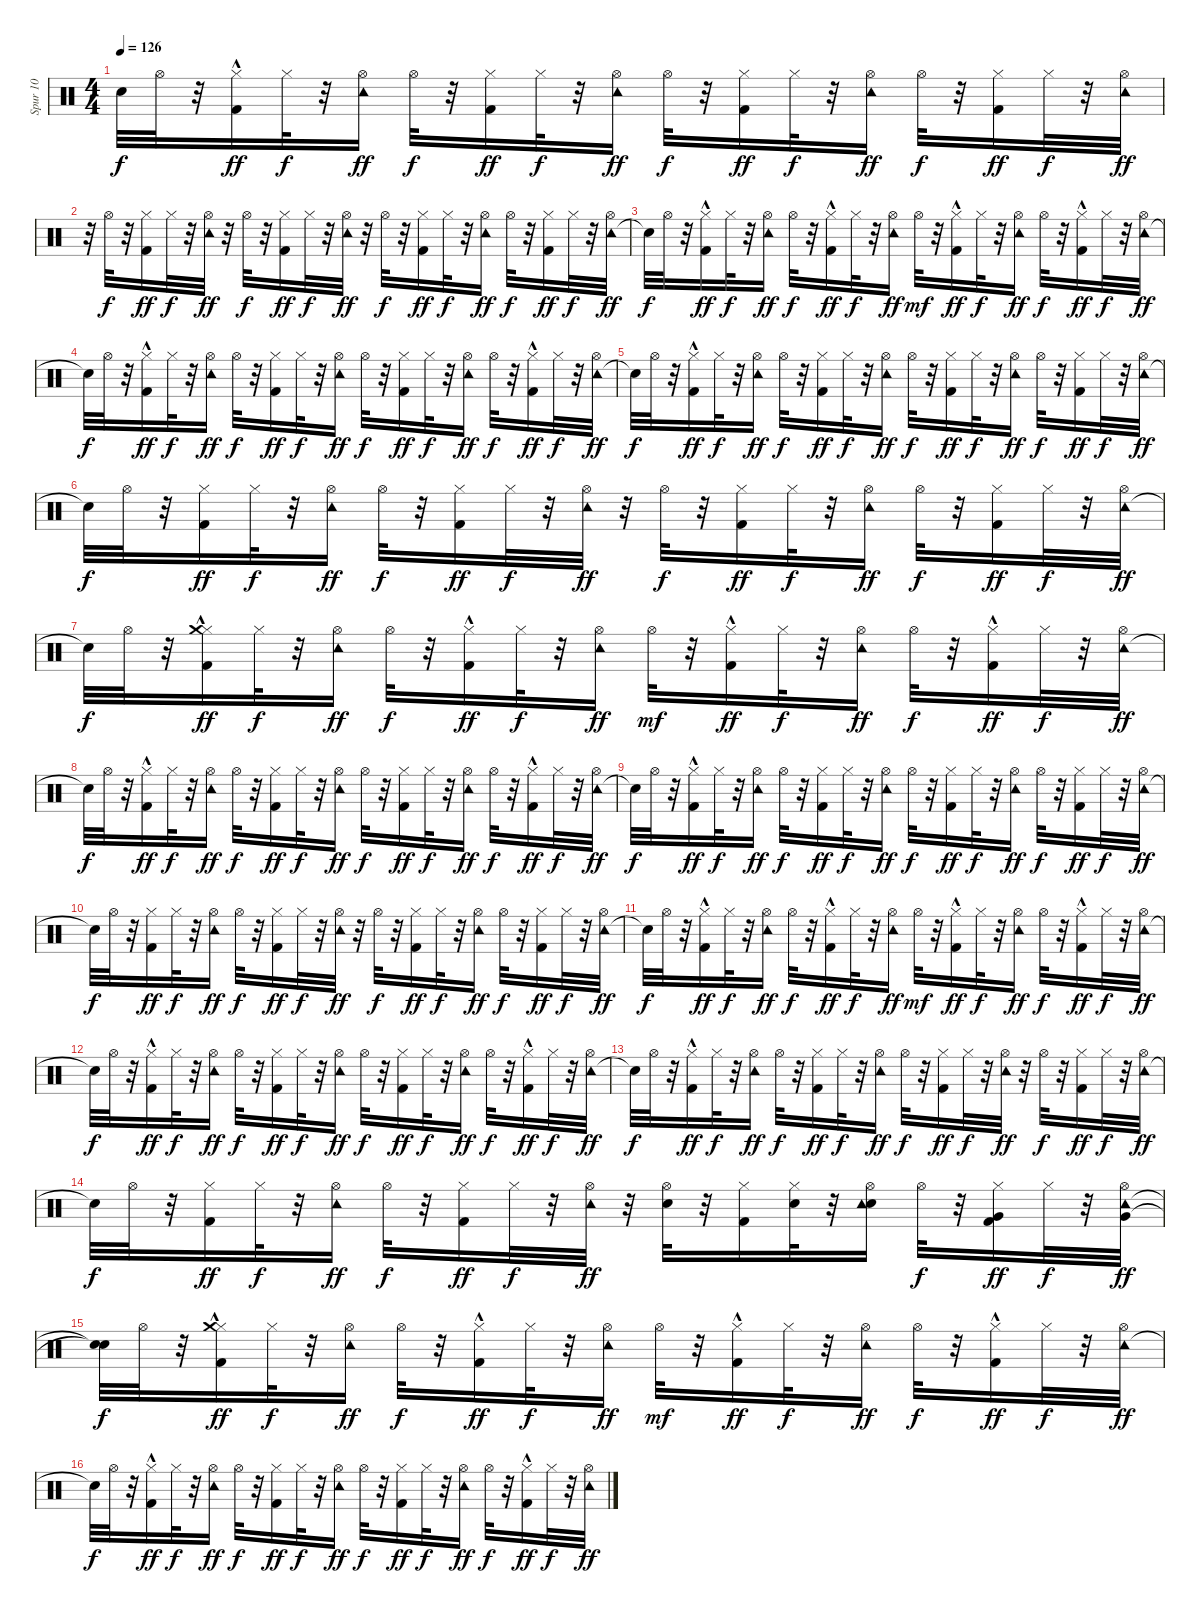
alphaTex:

\track ("Spur 10" "Spur 10") {instrument percussion}
\staff {score}
\articulation defaults
\ts (4 4)
\tempo 126
\clef neutral
\ks c "Snare (hit)"{t}.32{dy f} "Hi-Hat (open)".32
r.32 ("Kick (hit) 2"{hac} "Hi-Hat (closed)").16{dy ff} "Hi-Hat (closed)".32{dy f} r.32 ("Tambourine (hit)" "Hi-Hat (open)").16{dy ff} "Hi-Hat (open)".32{dy f} r.32 ("Kick (hit) 2" "Hi-Hat (closed)").16{dy ff} "Hi-Hat (closed)".32{dy f} r.32 ("Tambourine (hit)" "Hi-Hat (open)").16{dy ff} "Hi-Hat (open)".32{dy f} r.32 ("Kick (hit) 2" "Hi-Hat (closed)").16{dy ff} "Hi-Hat (closed)".32{dy f} r.32 ("Tambourine (hit)" "Hi-Hat (open)").16{dy ff} "Hi-Hat (open)".32{dy f} r.32 ("Kick (hit) 2" "Hi-Hat (closed)").16{dy ff} "Hi-Hat (closed)".32{dy f} r.32 ("Tambourine (hit)" "Hi-Hat (open)").32{dy ff} |
r.32 "Hi-Hat (open)".32{dy f} r.32 ("Kick (hit) 2" "Hi-Hat (closed)").16{dy ff} "Hi-Hat (closed)".32{dy f} r.32 ("Tambourine (hit)" "Hi-Hat (open)").32{dy ff} r.32 "Hi-Hat (open)".32{dy f} r.32 ("Kick (hit) 2" "Hi-Hat (closed)").16{dy ff} "Hi-Hat (closed)".32{dy f} r.32 ("Tambourine (hit)" "Hi-Hat (open)").32{dy ff} r.32 "Hi-Hat (open)".32{dy f} r.32 ("Kick (hit) 2" "Hi-Hat (closed)").16{dy ff} "Hi-Hat (closed)".32{dy f} r.32 ("Tambourine (hit)" "Hi-Hat (open)").16{dy ff} "Hi-Hat (open)".32{dy f} r.32 ("Kick (hit) 2" "Hi-Hat (closed)").16{dy ff} "Hi-Hat (closed)".32{dy f} r.32 ("Tambourine (hit)" "Hi-Hat (open)").32{dy ff} |
"Snare (hit)"{t}.32{dy f} "Hi-Hat (open)".32 r.32 ("Kick (hit) 2"{hac} "Hi-Hat (closed)").16{dy ff} "Hi-Hat (closed)".32{dy f} r.32 ("Tambourine (hit)" "Hi-Hat (open)").16{dy ff} "Hi-Hat (open)".32{dy f} r.32 ("Kick (hit) 2"{hac} "Hi-Hat (closed)").16{dy ff} "Hi-Hat (closed)".32{dy f} r.32 ("Tambourine (hit)" "Hi-Hat (open)").16{dy ff} "Hi-Hat (open)".32{dy mf} r.32 ("Kick (hit) 2"{hac} "Hi-Hat (closed)").16{dy ff} "Hi-Hat (closed)".32{dy f} r.32 ("Tambourine (hit)" "Hi-Hat (open)").16{dy ff} "Hi-Hat (open)".32{dy f} r.32 ("Kick (hit) 2"{hac} "Hi-Hat (closed)").16{dy ff} "Hi-Hat (closed)".32{dy f} r.32 ("Tambourine (hit)" "Hi-Hat (open)").32{dy ff} |
"Snare (hit)"{t}.32{dy f} "Hi-Hat (open)".32 r.32 ("Kick (hit) 2"{hac} "Hi-Hat (closed)").16{dy ff} "Hi-Hat (closed)".32{dy f} r.32 ("Tambourine (hit)" "Hi-Hat (open)").16{dy ff} "Hi-Hat (open)".32{dy f} r.32 ("Kick (hit) 2" "Hi-Hat (closed)").16{dy ff} "Hi-Hat (closed)".32{dy f} r.32 ("Tambourine (hit)" "Hi-Hat (open)").16{dy ff} "Hi-Hat (open)".32{dy f} r.32 ("Kick (hit) 2" "Hi-Hat (closed)").16{dy ff} "Hi-Hat (closed)".32{dy f} r.32 ("Tambourine (hit)" "Hi-Hat (open)").16{dy ff} "Hi-Hat (open)".32{dy f} r.32 ("Kick (hit) 2"{hac} "Hi-Hat (closed)").16{dy ff} "Hi-Hat (closed)".32{dy f} r.32 ("Tambourine (hit)" "Hi-Hat (open)").32{dy ff} |
"Snare (hit)"{t}.32{dy f} "Hi-Hat (open)".32 r.32 ("Kick (hit) 2"{hac} "Hi-Hat (closed)").16{dy ff} "Hi-Hat (closed)".32{dy f} r.32 ("Tambourine (hit)" "Hi-Hat (open)").16{dy ff} "Hi-Hat (open)".32{dy f} r.32 ("Kick (hit) 2" "Hi-Hat (closed)").16{dy ff} "Hi-Hat (closed)".32{dy f} r.32 ("Tambourine (hit)" "Hi-Hat (open)").16{dy ff} "Hi-Hat (open)".32{dy f} r.32 ("Kick (hit) 2" "Hi-Hat (closed)").16{dy ff} "Hi-Hat (closed)".32{dy f} r.32 ("Tambourine (hit)" "Hi-Hat (open)").16{dy ff} "Hi-Hat (open)".32{dy f} r.32 ("Kick (hit) 2" "Hi-Hat (closed)").16{dy ff} "Hi-Hat (closed)".32{dy f} r.32 ("Tambourine (hit)" "Hi-Hat (open)").32{dy ff} |
"Snare (hit)"{t}.32{dy f} "Hi-Hat (open)".32 r.32 ("Kick (hit) 2" "Hi-Hat (closed)").16{dy ff} "Hi-Hat (closed)".32{dy f} r.32 ("Tambourine (hit)" "Hi-Hat (open)").16{dy ff} "Hi-Hat (open)".32{dy f} r.32 ("Kick (hit) 2" "Hi-Hat (closed)").16{dy ff} "Hi-Hat (closed)".32{dy f} r.32 ("Tambourine (hit)" "Hi-Hat (open)").32{dy ff} r.32 "Hi-Hat (open)".32{dy f} r.32 ("Kick (hit) 2" "Hi-Hat (closed)").16{dy ff} "Hi-Hat (closed)".32{dy f} r.32 ("Tambourine (hit)" "Hi-Hat (open)").16{dy ff} "Hi-Hat (open)".32{dy f} r.32 ("Kick (hit) 2" "Hi-Hat (closed)").16{dy ff} "Hi-Hat (closed)".32{dy f} r.32 ("Tambourine (hit)" "Hi-Hat (open)").32{dy ff} |
"Snare (hit)"{t}.32{dy f} "Hi-Hat (open)".32 r.32 ("Kick (hit) 2"{hac} "Hi-Hat (closed)" "Crash medium (hit)").16{dy ff} "Hi-Hat (closed)".32{dy f} r.32 ("Tambourine (hit)" "Hi-Hat (open)").16{dy ff} "Hi-Hat (open)".32{dy f} r.32 ("Kick (hit) 2"{hac} "Hi-Hat (closed)").16{dy ff} "Hi-Hat (closed)".32{dy f} r.32 ("Tambourine (hit)" "Hi-Hat (open)").16{dy ff} "Hi-Hat (open)".32{dy mf} r.32 ("Kick (hit) 2"{hac} "Hi-Hat (closed)").16{dy ff} "Hi-Hat (closed)".32{dy f} r.32 ("Tambourine (hit)" "Hi-Hat (open)").16{dy ff} "Hi-Hat (open)".32{dy f} r.32 ("Kick (hit) 2"{hac} "Hi-Hat (closed)").16{dy ff} "Hi-Hat (closed)".32{dy f} r.32 ("Tambourine (hit)" "Hi-Hat (open)").32{dy ff} |
"Snare (hit)"{t}.32{dy f} "Hi-Hat (open)".32 r.32 ("Kick (hit) 2"{hac} "Hi-Hat (closed)").16{dy ff} "Hi-Hat (closed)".32{dy f} r.32 ("Tambourine (hit)" "Hi-Hat (open)").16{dy ff} "Hi-Hat (open)".32{dy f} r.32 ("Kick (hit) 2" "Hi-Hat (closed)").16{dy ff} "Hi-Hat (closed)".32{dy f} r.32 ("Tambourine (hit)" "Hi-Hat (open)").16{dy ff} "Hi-Hat (open)".32{dy f} r.32 ("Kick (hit) 2" "Hi-Hat (closed)").16{dy ff} "Hi-Hat (closed)".32{dy f} r.32 ("Tambourine (hit)" "Hi-Hat (open)").16{dy ff} "Hi-Hat (open)".32{dy f} r.32 ("Kick (hit) 2"{hac} "Hi-Hat (closed)").16{dy ff} "Hi-Hat (closed)".32{dy f} r.32 ("Tambourine (hit)" "Hi-Hat (open)").32{dy ff} |
"Snare (hit)"{t}.32{dy f} "Hi-Hat (open)".32 r.32 ("Kick (hit) 2"{hac} "Hi-Hat (closed)").16{dy ff} "Hi-Hat (closed)".32{dy f} r.32 ("Tambourine (hit)" "Hi-Hat (open)").16{dy ff} "Hi-Hat (open)".32{dy f} r.32 ("Kick (hit) 2" "Hi-Hat (closed)").16{dy ff} "Hi-Hat (closed)".32{dy f} r.32 ("Tambourine (hit)" "Hi-Hat (open)").16{dy ff} "Hi-Hat (open)".32{dy f} r.32 ("Kick (hit) 2" "Hi-Hat (closed)").16{dy ff} "Hi-Hat (closed)".32{dy f} r.32 ("Tambourine (hit)" "Hi-Hat (open)").16{dy ff} "Hi-Hat (open)".32{dy f} r.32 ("Kick (hit) 2" "Hi-Hat (closed)").16{dy ff} "Hi-Hat (closed)".32{dy f} r.32 ("Tambourine (hit)" "Hi-Hat (open)").32{dy ff} |
"Snare (hit)"{t}.32{dy f} "Hi-Hat (open)".32 r.32 ("Kick (hit) 2" "Hi-Hat (closed)").16{dy ff} "Hi-Hat (closed)".32{dy f} r.32 ("Tambourine (hit)" "Hi-Hat (open)").16{dy ff} "Hi-Hat (open)".32{dy f} r.32 ("Kick (hit) 2" "Hi-Hat (closed)").16{dy ff} "Hi-Hat (closed)".32{dy f} r.32 ("Tambourine (hit)" "Hi-Hat (open)").32{dy ff} r.32 "Hi-Hat (open)".32{dy f} r.32 ("Kick (hit) 2" "Hi-Hat (closed)").16{dy ff} "Hi-Hat (closed)".32{dy f} r.32 ("Tambourine (hit)" "Hi-Hat (open)").16{dy ff} "Hi-Hat (open)".32{dy f} r.32 ("Kick (hit) 2" "Hi-Hat (closed)").16{dy ff} "Hi-Hat (closed)".32{dy f} r.32 ("Tambourine (hit)" "Hi-Hat (open)").32{dy ff} |
"Snare (hit)"{t}.32{dy f} "Hi-Hat (open)".32 r.32 ("Kick (hit) 2"{hac} "Hi-Hat (closed)").16{dy ff} "Hi-Hat (closed)".32{dy f} r.32 ("Tambourine (hit)" "Hi-Hat (open)").16{dy ff} "Hi-Hat (open)".32{dy f} r.32 ("Kick (hit) 2"{hac} "Hi-Hat (closed)").16{dy ff} "Hi-Hat (closed)".32{dy f} r.32 ("Tambourine (hit)" "Hi-Hat (open)").16{dy ff} "Hi-Hat (open)".32{dy mf} r.32 ("Kick (hit) 2"{hac} "Hi-Hat (closed)").16{dy ff} "Hi-Hat (closed)".32{dy f} r.32 ("Tambourine (hit)" "Hi-Hat (open)").16{dy ff} "Hi-Hat (open)".32{dy f} r.32 ("Kick (hit) 2"{hac} "Hi-Hat (closed)").16{dy ff} "Hi-Hat (closed)".32{dy f} r.32 ("Tambourine (hit)" "Hi-Hat (open)").32{dy ff} |
"Snare (hit)"{t}.32{dy f} "Hi-Hat (open)".32 r.32 ("Kick (hit) 2"{hac} "Hi-Hat (closed)").16{dy ff} "Hi-Hat (closed)".32{dy f} r.32 ("Tambourine (hit)" "Hi-Hat (open)").16{dy ff} "Hi-Hat (open)".32{dy f} r.32 ("Kick (hit) 2" "Hi-Hat (closed)").16{dy ff} "Hi-Hat (closed)".32{dy f} r.32 ("Tambourine (hit)" "Hi-Hat (open)").16{dy ff} "Hi-Hat (open)".32{dy f} r.32 ("Kick (hit) 2" "Hi-Hat (closed)").16{dy ff} "Hi-Hat (closed)".32{dy f} r.32 ("Tambourine (hit)" "Hi-Hat (open)").16{dy ff} "Hi-Hat (open)".32{dy f} r.32 ("Kick (hit) 2"{hac} "Hi-Hat (closed)").16{dy ff} "Hi-Hat (closed)".32{dy f} r.32 ("Tambourine (hit)" "Hi-Hat (open)").32{dy ff} |
"Snare (hit)"{t}.32{dy f} "Hi-Hat (open)".32 r.32 ("Kick (hit) 2"{hac} "Hi-Hat (closed)").16{dy ff} "Hi-Hat (closed)".32{dy f} r.32 ("Tambourine (hit)" "Hi-Hat (open)").16{dy ff} "Hi-Hat (open)".32{dy f} r.32 ("Kick (hit) 2" "Hi-Hat (closed)").16{dy ff} "Hi-Hat (closed)".32{dy f} r.32 ("Tambourine (hit)" "Hi-Hat (open)").16{dy ff} "Hi-Hat (open)".32{dy f} r.32 ("Kick (hit) 2" "Hi-Hat (closed)").16{dy ff} "Hi-Hat (closed)".32{dy f} r.32 ("Tambourine (hit)" "Hi-Hat (open)").32{dy ff} r.32 "Hi-Hat (open)".32{dy f} r.32 ("Kick (hit) 2" "Hi-Hat (closed)").16{dy ff} "Hi-Hat (closed)".32{dy f} r.32 ("Tambourine (hit)" "Hi-Hat (open)").32{dy ff} |
"Snare (hit)"{t}.32{dy f} "Hi-Hat (open)".32 r.32 ("Kick (hit) 2" "Hi-Hat (closed)").16{dy ff} "Hi-Hat (closed)".32{dy f} r.32 ("Tambourine (hit)" "Hi-Hat (open)").16{dy ff} "Hi-Hat (open)".32{dy f} r.32 ("Kick (hit) 2" "Hi-Hat (closed)").16{dy ff} "Hi-Hat (closed)".32{dy f} r.32 ("Tambourine (hit)" "Hi-Hat (open)").32{dy ff} r.32 ("Electric Snare (hit)" "Hi-Hat (open)").32 r.32 ("Kick (hit) 2" "Hi-Hat (closed)").16 ("Electric Snare (hit)" "Hi-Hat (closed)").32 r.32 ("Electric Snare (hit)" "Tambourine (hit)" "Hi-Hat (open)").16 "Hi-Hat (open)".32{dy f} r.32 ("Very Low Tom (hit)" "Kick (hit) 2" "Hi-Hat (closed)").16{dy ff} "Hi-Hat (closed)".32{dy f} r.32 ("Very Low Tom (hit)" "Tambourine (hit)" "Hi-Hat (open)").32{dy ff} |
("Snare (hit)"{t} "Snare (hit)"{t}).32{dy f} "Hi-Hat (open)".32 r.32 ("Kick (hit) 2"{hac} "Hi-Hat (closed)" "Crash medium (hit)").16{dy ff} "Hi-Hat (closed)".32{dy f} r.32 ("Tambourine (hit)" "Hi-Hat (open)").16{dy ff} "Hi-Hat (open)".32{dy f} r.32 ("Kick (hit) 2"{hac} "Hi-Hat (closed)").16{dy ff} "Hi-Hat (closed)".32{dy f} r.32 ("Tambourine (hit)" "Hi-Hat (open)").16{dy ff} "Hi-Hat (open)".32{dy mf} r.32 ("Kick (hit) 2"{hac} "Hi-Hat (closed)").16{dy ff} "Hi-Hat (closed)".32{dy f} r.32 ("Tambourine (hit)" "Hi-Hat (open)").16{dy ff} "Hi-Hat (open)".32{dy f} r.32 ("Kick (hit) 2"{hac} "Hi-Hat (closed)").16{dy ff} "Hi-Hat (closed)".32{dy f} r.32 ("Tambourine (hit)" "Hi-Hat (open)").32{dy ff} |
"Snare (hit)"{t}.32{dy f} "Hi-Hat (open)".32 r.32 ("Kick (hit) 2"{hac} "Hi-Hat (closed)").16{dy ff} "Hi-Hat (closed)".32{dy f} r.32 ("Tambourine (hit)" "Hi-Hat (open)").16{dy ff} "Hi-Hat (open)".32{dy f} r.32 ("Kick (hit) 2" "Hi-Hat (closed)").16{dy ff} "Hi-Hat (closed)".32{dy f} r.32 ("Tambourine (hit)" "Hi-Hat (open)").16{dy ff} "Hi-Hat (open)".32{dy f} r.32 ("Kick (hit) 2" "Hi-Hat (closed)").16{dy ff} "Hi-Hat (closed)".32{dy f} r.32 ("Tambourine (hit)" "Hi-Hat (open)").16{dy ff} "Hi-Hat (open)".32{dy f} r.32 ("Kick (hit) 2"{hac} "Hi-Hat (closed)").16{dy ff} "Hi-Hat (closed)".32{dy f} r.32 ("Tambourine (hit)" "Hi-Hat (open)").32{dy ff}
